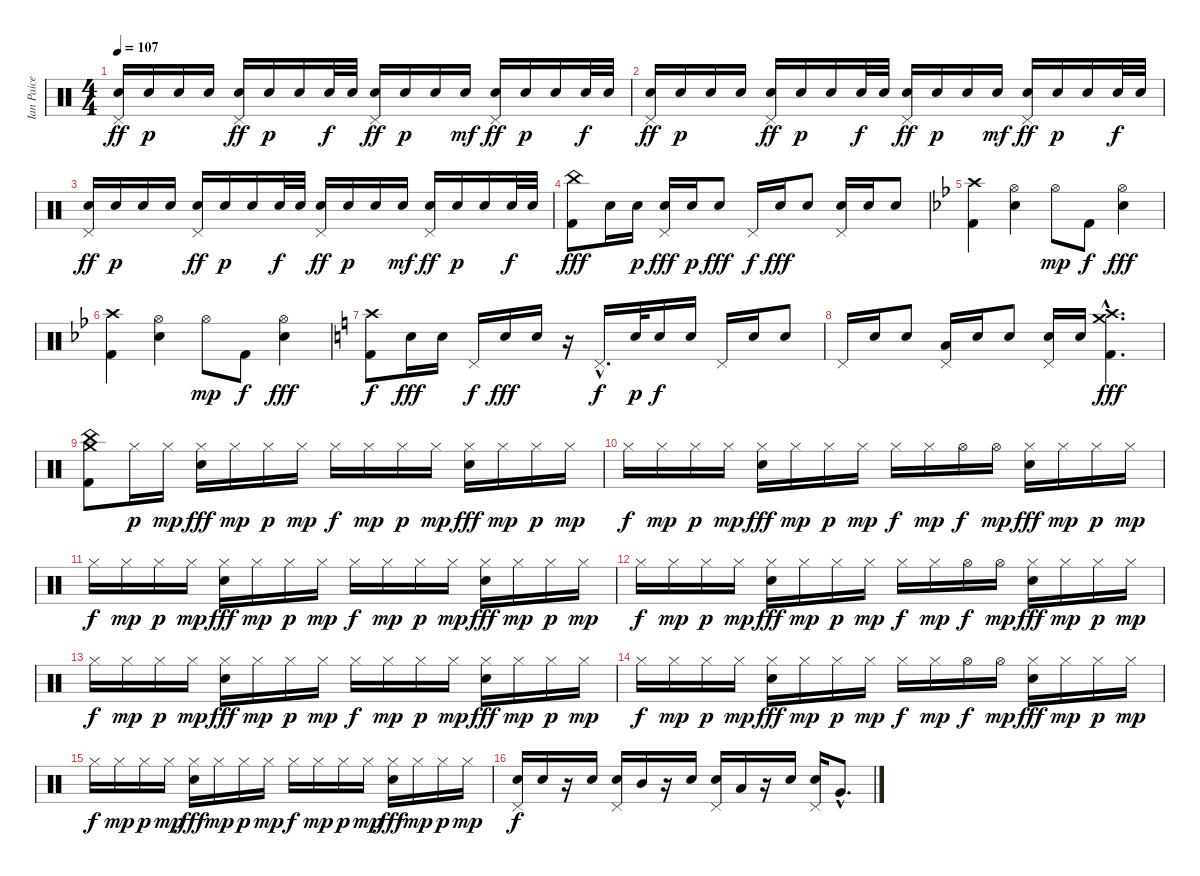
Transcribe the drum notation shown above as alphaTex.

\track ("Ian Paice" "Ian Paice") {instrument percussion}
\staff {score}
\articulation defaults
\ts (4 4)
\tempo 107
\clef neutral
\ks c
("Pedal Hi-Hat (hit)" "Electric Snare (hit)").16{dy ff} "Electric Snare (hit)".16{dy p} "Electric Snare (hit)".16 "Electric Snare (hit)".16 ("Pedal Hi-Hat (hit)" "Electric Snare (hit)").16{dy ff} "Electric Snare (hit)".16{dy p} "Electric Snare (hit)".16 "Electric Snare (hit)".32{dy f} "Electric Snare (hit)".32 ("Pedal Hi-Hat (hit)" "Electric Snare (hit)").16{dy ff} "Electric Snare (hit)".16{dy p} "Electric Snare (hit)".16 "Electric Snare (hit)".16{dy mf} ("Pedal Hi-Hat (hit)" "Electric Snare (hit)").16{dy ff} "Electric Snare (hit)".16{dy p} "Electric Snare (hit)".16 "Electric Snare (hit)".32{dy f} "Electric Snare (hit)".32 |
("Pedal Hi-Hat (hit)" "Electric Snare (hit)").16{dy ff} "Electric Snare (hit)".16{dy p} "Electric Snare (hit)".16 "Electric Snare (hit)".16 ("Pedal Hi-Hat (hit)" "Electric Snare (hit)").16{dy ff} "Electric Snare (hit)".16{dy p} "Electric Snare (hit)".16 "Electric Snare (hit)".32{dy f} "Electric Snare (hit)".32 ("Pedal Hi-Hat (hit)" "Electric Snare (hit)").16{dy ff} "Electric Snare (hit)".16{dy p} "Electric Snare (hit)".16 "Electric Snare (hit)".16{dy mf} ("Pedal Hi-Hat (hit)" "Electric Snare (hit)").16{dy ff} "Electric Snare (hit)".16{dy p} "Electric Snare (hit)".16 "Electric Snare (hit)".32{dy f} "Electric Snare (hit)".32 |
("Pedal Hi-Hat (hit)" "Electric Snare (hit)").16{dy ff} "Electric Snare (hit)".16{dy p} "Electric Snare (hit)".16 "Electric Snare (hit)".16 ("Pedal Hi-Hat (hit)" "Electric Snare (hit)").16{dy ff} "Electric Snare (hit)".16{dy p} "Electric Snare (hit)".16 "Electric Snare (hit)".32{dy f} "Electric Snare (hit)".32 ("Pedal Hi-Hat (hit)" "Electric Snare (hit)").16{dy ff} "Electric Snare (hit)".16{dy p} "Electric Snare (hit)".16 "Electric Snare (hit)".16{dy mf} ("Pedal Hi-Hat (hit)" "Electric Snare (hit)").16{dy ff} "Electric Snare (hit)".16{dy p} "Electric Snare (hit)".16 "Electric Snare (hit)".32{dy f} "Electric Snare (hit)".32 |
("China (hit)" "Kick (hit) 2").8{dy fff} "Electric Snare (hit)".16 "Electric Snare (hit)".16{dy p} ("Pedal Hi-Hat (hit)" "Electric Snare (hit)").16{dy fff} "Electric Snare (hit)".16{dy p} "Electric Snare (hit)".8{dy fff} "Pedal Hi-Hat (hit)".16{dy f} "Electric Snare (hit)".16{dy fff} "Electric Snare (hit)".8 ("Pedal Hi-Hat (hit)" "Electric Snare (hit)").16 "Electric Snare (hit)".16 "Electric Snare (hit)".8 |
\ks bb
("Crash high (hit)" "Kick (hit) 2").4 ("Hi-Hat (open)" "Electric Snare (hit)").4 "Hi-Hat (open)".8{dy mp} "Kick (hit) 2".8{dy f} ("Hi-Hat (open)" "Electric Snare (hit)").4{dy fff} |
("Crash high (hit)" "Kick (hit) 2").4 ("Hi-Hat (open)" "Electric Snare (hit)").4 "Hi-Hat (open)".8{dy mp} "Kick (hit) 2".8{dy f} ("Hi-Hat (open)" "Electric Snare (hit)").4{dy fff} |
\ks c
("Crash high (hit)" "Kick (hit) 2").8{dy f} "Electric Snare (hit)".16{dy fff} "Electric Snare (hit)".16 "Pedal Hi-Hat (hit)".16{dy f} "Electric Snare (hit)".16{dy fff} "Electric Snare (hit)".16 r.16 "Pedal Hi-Hat (hit)"{hac}.16{d dy f} "Electric Snare (hit)".32{dy p} "Electric Snare (hit)".16{dy f} "Electric Snare (hit)".16 "Pedal Hi-Hat (hit)".16 "Electric Snare (hit)".16 "Electric Snare (hit)".8 |
"Pedal Hi-Hat (hit)".16 "Electric Snare (hit)".16 "Electric Snare (hit)".8 ("Pedal Hi-Hat (hit)" "Low Tom (hit)").16 "Electric Snare (hit)".16 "Electric Snare (hit)".8 ("Pedal Hi-Hat (hit)" "Electric Snare (hit)").16 "Electric Snare (hit)".16 ("Crash high (hit)"{hac} "Crash medium (hit)"{hac} "Kick (hit) 2"{hac}).4{d dy fff} |
("Crash medium (hit)" "China (hit)" "Kick (hit) 2").8 "Hi-Hat (closed)".16{dy p} "Hi-Hat (closed)".16{dy mp} ("Hi-Hat (closed)" "Electric Snare (hit)").16{dy fff} "Hi-Hat (closed)".16{dy mp} "Hi-Hat (closed)".16{dy p} "Hi-Hat (closed)".16{dy mp} "Hi-Hat (closed)".16{dy f} "Hi-Hat (closed)".16{dy mp} "Hi-Hat (closed)".16{dy p} "Hi-Hat (closed)".16{dy mp} ("Hi-Hat (closed)" "Electric Snare (hit)").16{dy fff} "Hi-Hat (closed)".16{dy mp} "Hi-Hat (closed)".16{dy p} "Hi-Hat (closed)".16{dy mp} |
"Hi-Hat (closed)".16{dy f} "Hi-Hat (closed)".16{dy mp} "Hi-Hat (closed)".16{dy p} "Hi-Hat (closed)".16{dy mp} ("Hi-Hat (closed)" "Electric Snare (hit)").16{dy fff} "Hi-Hat (closed)".16{dy mp} "Hi-Hat (closed)".16{dy p} "Hi-Hat (closed)".16{dy mp} "Hi-Hat (closed)".16{dy f} "Hi-Hat (closed)".16{dy mp} "Hi-Hat (open)".16{dy f} "Hi-Hat (open)".16{dy mp} ("Hi-Hat (closed)" "Electric Snare (hit)").16{dy fff} "Hi-Hat (closed)".16{dy mp} "Hi-Hat (closed)".16{dy p} "Hi-Hat (closed)".16{dy mp} |
"Hi-Hat (closed)".16{dy f} "Hi-Hat (closed)".16{dy mp} "Hi-Hat (closed)".16{dy p} "Hi-Hat (closed)".16{dy mp} ("Hi-Hat (closed)" "Electric Snare (hit)").16{dy fff} "Hi-Hat (closed)".16{dy mp} "Hi-Hat (closed)".16{dy p} "Hi-Hat (closed)".16{dy mp} "Hi-Hat (closed)".16{dy f} "Hi-Hat (closed)".16{dy mp} "Hi-Hat (closed)".16{dy p} "Hi-Hat (closed)".16{dy mp} ("Hi-Hat (closed)" "Electric Snare (hit)").16{dy fff} "Hi-Hat (closed)".16{dy mp} "Hi-Hat (closed)".16{dy p} "Hi-Hat (closed)".16{dy mp} |
"Hi-Hat (closed)".16{dy f} "Hi-Hat (closed)".16{dy mp} "Hi-Hat (closed)".16{dy p} "Hi-Hat (closed)".16{dy mp} ("Hi-Hat (closed)" "Electric Snare (hit)").16{dy fff} "Hi-Hat (closed)".16{dy mp} "Hi-Hat (closed)".16{dy p} "Hi-Hat (closed)".16{dy mp} "Hi-Hat (closed)".16{dy f} "Hi-Hat (closed)".16{dy mp} "Hi-Hat (open)".16{dy f} "Hi-Hat (open)".16{dy mp} ("Hi-Hat (closed)" "Electric Snare (hit)").16{dy fff} "Hi-Hat (closed)".16{dy mp} "Hi-Hat (closed)".16{dy p} "Hi-Hat (closed)".16{dy mp} |
"Hi-Hat (closed)".16{dy f} "Hi-Hat (closed)".16{dy mp} "Hi-Hat (closed)".16{dy p} "Hi-Hat (closed)".16{dy mp} ("Hi-Hat (closed)" "Electric Snare (hit)").16{dy fff} "Hi-Hat (closed)".16{dy mp} "Hi-Hat (closed)".16{dy p} "Hi-Hat (closed)".16{dy mp} "Hi-Hat (closed)".16{dy f} "Hi-Hat (closed)".16{dy mp} "Hi-Hat (closed)".16{dy p} "Hi-Hat (closed)".16{dy mp} ("Hi-Hat (closed)" "Electric Snare (hit)").16{dy fff} "Hi-Hat (closed)".16{dy mp} "Hi-Hat (closed)".16{dy p} "Hi-Hat (closed)".16{dy mp} |
"Hi-Hat (closed)".16{dy f} "Hi-Hat (closed)".16{dy mp} "Hi-Hat (closed)".16{dy p} "Hi-Hat (closed)".16{dy mp} ("Hi-Hat (closed)" "Electric Snare (hit)").16{dy fff} "Hi-Hat (closed)".16{dy mp} "Hi-Hat (closed)".16{dy p} "Hi-Hat (closed)".16{dy mp} "Hi-Hat (closed)".16{dy f} "Hi-Hat (closed)".16{dy mp} "Hi-Hat (open)".16{dy f} "Hi-Hat (open)".16{dy mp} ("Hi-Hat (closed)" "Electric Snare (hit)").16{dy fff} "Hi-Hat (closed)".16{dy mp} "Hi-Hat (closed)".16{dy p} "Hi-Hat (closed)".16{dy mp} |
"Hi-Hat (closed)".16{dy f} "Hi-Hat (closed)".16{dy mp} "Hi-Hat (closed)".16{dy p} "Hi-Hat (closed)".16{dy mp} ("Hi-Hat (closed)" "Electric Snare (hit)").16{dy fff} "Hi-Hat (closed)".16{dy mp} "Hi-Hat (closed)".16{dy p} "Hi-Hat (closed)".16{dy mp} "Hi-Hat (closed)".16{dy f} "Hi-Hat (closed)".16{dy mp} "Hi-Hat (closed)".16{dy p} "Hi-Hat (closed)".16{dy mp} ("Hi-Hat (closed)" "Electric Snare (hit)").16{dy fff} "Hi-Hat (closed)".16{dy mp} "Hi-Hat (closed)".16{dy p} "Hi-Hat (closed)".16{dy mp} |
("Pedal Hi-Hat (hit)" "Electric Snare (hit)").16{dy f} "Electric Snare (hit)".16 r.16 "Electric Snare (hit)".16 ("Pedal Hi-Hat (hit)" "Electric Snare (hit)").16 "Mid Tom (hit)".16 r.16 "Electric Snare (hit)".16 ("Pedal Hi-Hat (hit)" "Electric Snare (hit)").16 "Low Tom (hit)".16 r.16 "Electric Snare (hit)".16 ("Pedal Hi-Hat (hit)" "Electric Snare (hit)").16 "Very Low Tom (hit)"{hac}.8{d}
